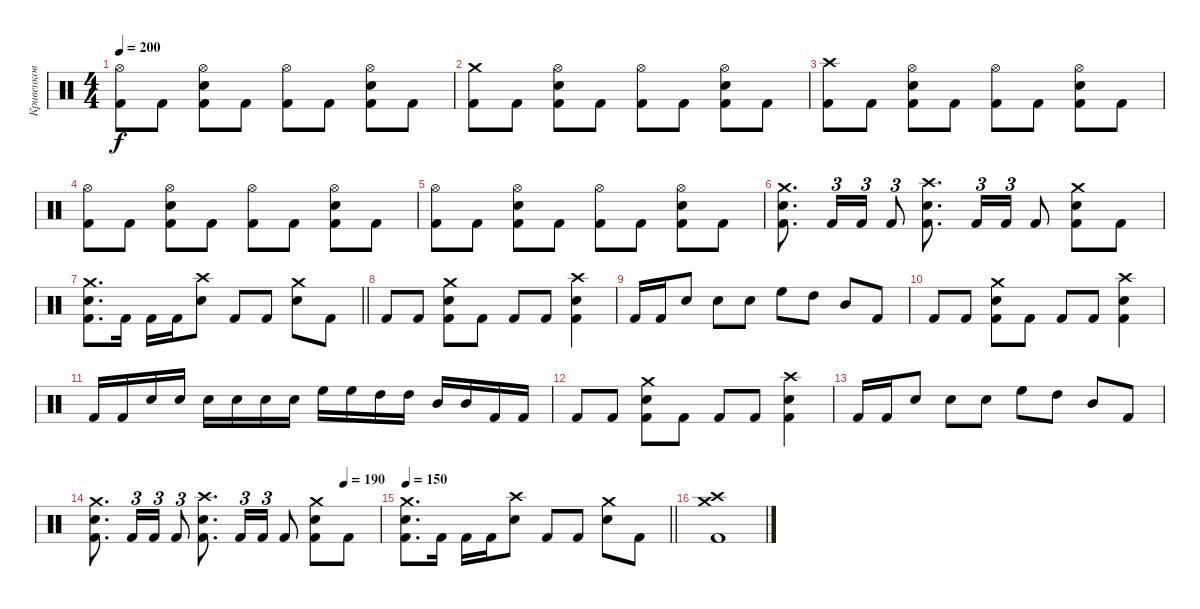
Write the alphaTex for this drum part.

\track ("Кривенков" "Кривенков") {instrument percussion}
\staff {score}
\articulation defaults
\ts (4 4)
\tempo 200
\clef neutral
\ks c
("Hi-Hat (open)" "Kick (hit) 2").8{dy f} "Kick (hit) 2".8 ("Hi-Hat (open)" "Electric Snare (hit)" "Kick (hit) 2").8 "Kick (hit) 2".8 ("Hi-Hat (open)" "Kick (hit) 2").8 "Kick (hit) 2".8 ("Hi-Hat (open)" "Electric Snare (hit)" "Kick (hit) 2").8 "Kick (hit) 2".8 |
("Crash medium (hit)" "Kick (hit) 2").8 "Kick (hit) 2".8 ("Hi-Hat (open)" "Electric Snare (hit)" "Kick (hit) 2").8 "Kick (hit) 2".8 ("Hi-Hat (open)" "Kick (hit) 2").8 "Kick (hit) 2".8 ("Hi-Hat (open)" "Electric Snare (hit)" "Kick (hit) 2").8 "Kick (hit) 2".8 |
("Crash high (hit)" "Kick (hit) 2").8 "Kick (hit) 2".8 ("Hi-Hat (open)" "Electric Snare (hit)" "Kick (hit) 2").8 "Kick (hit) 2".8 ("Hi-Hat (open)" "Kick (hit) 2").8 "Kick (hit) 2".8 ("Hi-Hat (open)" "Electric Snare (hit)" "Kick (hit) 2").8 "Kick (hit) 2".8 |
("Hi-Hat (open)" "Kick (hit) 2").8 "Kick (hit) 2".8 ("Hi-Hat (open)" "Electric Snare (hit)" "Kick (hit) 2").8 "Kick (hit) 2".8 ("Hi-Hat (open)" "Kick (hit) 2").8 "Kick (hit) 2".8 ("Hi-Hat (open)" "Electric Snare (hit)" "Kick (hit) 2").8 "Kick (hit) 2".8 |
("Hi-Hat (open)" "Kick (hit) 2").8 "Kick (hit) 2".8 ("Hi-Hat (open)" "Electric Snare (hit)" "Kick (hit) 2").8 "Kick (hit) 2".8 ("Hi-Hat (open)" "Kick (hit) 2").8 "Kick (hit) 2".8 ("Hi-Hat (open)" "Electric Snare (hit)" "Kick (hit) 2").8 "Kick (hit) 2".8 |
("Crash medium (hit)" "Electric Snare (hit)" "Kick (hit) 2").8{d} "Kick (hit) 2".16{tu (3 2)} "Kick (hit) 2".16{tu (3 2)} "Kick (hit) 2".8{tu (3 2)} ("Crash high (hit)" "Electric Snare (hit)" "Kick (hit) 2").8{d} "Kick (hit) 2".16{tu (3 2)} "Kick (hit) 2".16{tu (3 2)} "Kick (hit) 2".8 ("Crash medium (hit)" "Electric Snare (hit)" "Kick (hit) 2").8 "Kick (hit) 2".8 |
\barLineRight lightlight
("Crash medium (hit)" "Electric Snare (hit)" "Kick (hit) 2").8{d} "Kick (hit) 2".16 "Kick (hit) 2".16 "Kick (hit) 2".16 ("Crash high (hit)" "Electric Snare (hit)").8 "Kick (hit) 2".8 "Kick (hit) 2".8 ("Crash medium (hit)" "Electric Snare (hit)").8 "Kick (hit) 2".8 |
"Kick (hit) 2".8 "Kick (hit) 2".8 ("Crash medium (hit)" "Electric Snare (hit)" "Kick (hit) 2").8 "Kick (hit) 2".8 "Kick (hit) 2".8 "Kick (hit) 2".8 ("Crash high (hit)" "Electric Snare (hit)" "Kick (hit) 2").4 |
"Kick (hit) 2".16 "Kick (hit) 2".16 "Electric Snare (hit)".8 "Electric Snare (hit)".8 "Electric Snare (hit)".8 "High Floor Tom (hit)".8 "High Tom (hit)".8 "Mid Tom (hit)".8 "Kick (hit) 2".8 |
"Kick (hit) 2".8 "Kick (hit) 2".8 ("Crash medium (hit)" "Electric Snare (hit)" "Kick (hit) 2").8 "Kick (hit) 2".8 "Kick (hit) 2".8 "Kick (hit) 2".8 ("Crash high (hit)" "Electric Snare (hit)" "Kick (hit) 2").4 |
"Kick (hit) 2".16 "Kick (hit) 2".16 "Electric Snare (hit)".16 "Electric Snare (hit)".16 "Electric Snare (hit)".16 "Electric Snare (hit)".16 "Electric Snare (hit)".16 "Electric Snare (hit)".16 "High Floor Tom (hit)".16 "High Floor Tom (hit)".16 "High Tom (hit)".16 "High Tom (hit)".16 "Mid Tom (hit)".16 "Mid Tom (hit)".16 "Kick (hit) 2".16 "Kick (hit) 2".16 |
"Kick (hit) 2".8 "Kick (hit) 2".8 ("Crash medium (hit)" "Electric Snare (hit)" "Kick (hit) 2").8 "Kick (hit) 2".8 "Kick (hit) 2".8 "Kick (hit) 2".8 ("Crash high (hit)" "Electric Snare (hit)" "Kick (hit) 2").4 |
"Kick (hit) 2".16 "Kick (hit) 2".16 "Electric Snare (hit)".8 "Electric Snare (hit)".8 "Electric Snare (hit)".8 "High Floor Tom (hit)".8 "High Tom (hit)".8 "Mid Tom (hit)".8 "Kick (hit) 2".8 |
\tempo (190 0.875)
("Crash medium (hit)" "Electric Snare (hit)" "Kick (hit) 2").8{d} "Kick (hit) 2".16{tu (3 2)} "Kick (hit) 2".16{tu (3 2)} "Kick (hit) 2".8{tu (3 2)} ("Crash high (hit)" "Electric Snare (hit)" "Kick (hit) 2").8{d} "Kick (hit) 2".16{tu (3 2)} "Kick (hit) 2".16{tu (3 2)} "Kick (hit) 2".8 ("Crash medium (hit)" "Electric Snare (hit)" "Kick (hit) 2").8 "Kick (hit) 2".8 |
\tempo 150
\barLineRight lightlight
("Crash medium (hit)" "Electric Snare (hit)" "Kick (hit) 2").8{d} "Kick (hit) 2".16 "Kick (hit) 2".16 "Kick (hit) 2".16 ("Crash high (hit)" "Electric Snare (hit)").8 "Kick (hit) 2".8 "Kick (hit) 2".8 ("Crash medium (hit)" "Electric Snare (hit)").8 "Kick (hit) 2".8 |
("Crash high (hit)" "Crash medium (hit)" "Kick (hit) 2").1{volume 0}
